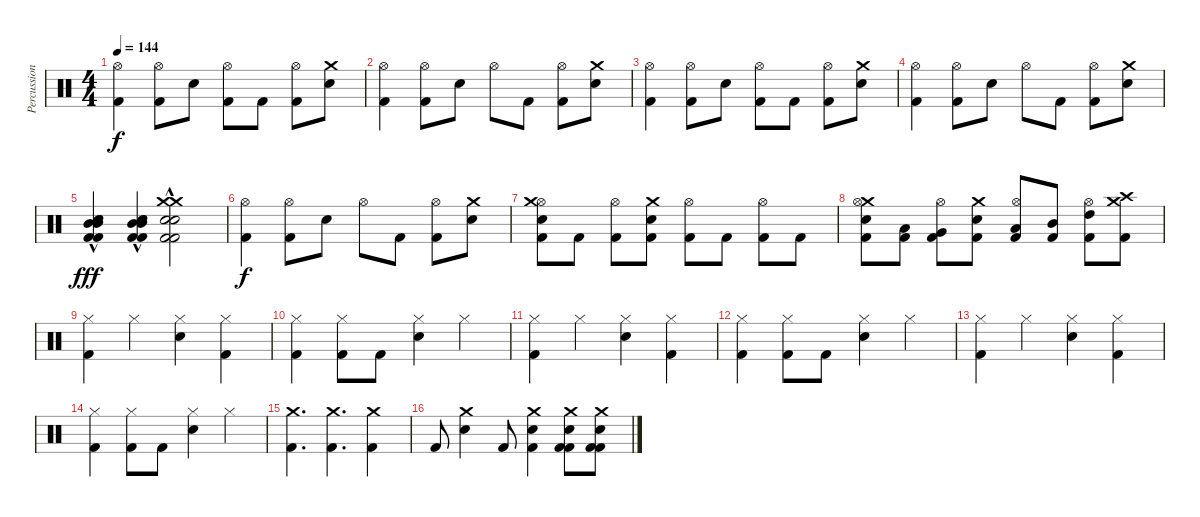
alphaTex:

\track ("Percussion" "Percussion") {instrument percussion}
\staff {score}
\articulation defaults
\ts (4 4)
\tempo 144
\clef neutral
\ks c
("Kick (hit) 2" "Hi-Hat (open)").4{dy f} ("Kick (hit) 2" "Hi-Hat (open)").8 "Electric Snare (hit)".8 ("Kick (hit) 2" "Hi-Hat (open)").8 "Kick (hit) 2".8 ("Kick (hit) 2" "Hi-Hat (open)").8 ("Electric Snare (hit)" "Crash medium (hit)").8 |
("Kick (hit) 2" "Hi-Hat (open)").4 ("Kick (hit) 2" "Hi-Hat (open)").8 "Electric Snare (hit)".8 "Hi-Hat (open)".8 "Kick (hit) 2".8 ("Kick (hit) 2" "Hi-Hat (open)").8 ("Electric Snare (hit)" "Crash medium (hit)").8 |
("Kick (hit) 2" "Hi-Hat (open)").4 ("Kick (hit) 2" "Hi-Hat (open)").8 "Electric Snare (hit)".8 ("Kick (hit) 2" "Hi-Hat (open)").8 "Kick (hit) 2".8 ("Kick (hit) 2" "Hi-Hat (open)").8 ("Electric Snare (hit)" "Crash medium (hit)").8 |
("Kick (hit) 2" "Hi-Hat (open)").4 ("Kick (hit) 2" "Hi-Hat (open)").8 "Electric Snare (hit)".8 "Hi-Hat (open)".8 "Kick (hit) 2".8 ("Kick (hit) 2" "Hi-Hat (open)").8 ("Electric Snare (hit)" "Crash medium (hit)").8 |
("Kick (hit) 2" "Mid Tom (hit)" "Electric Snare (hit)" "Mid Tom (hit)"{hac} "Kick (hit) 2" "Electric Snare (hit)").4{dy fff} ("Kick (hit) 2" "Mid Tom (hit)" "Electric Snare (hit)" "Mid Tom (hit)"{hac} "Kick (hit) 2" "Electric Snare (hit)").4 ("Kick (hit) 2" "Crash medium (hit)" "Electric Snare (hit)" "Crash medium (hit)"{hac} "Kick (hit) 2" "Electric Snare (hit)").2 |
("Kick (hit) 2" "Hi-Hat (open)").4{dy f} ("Kick (hit) 2" "Hi-Hat (open)").8 "Electric Snare (hit)".8 "Hi-Hat (open)".8 "Kick (hit) 2".8 ("Kick (hit) 2" "Hi-Hat (open)").8 ("Electric Snare (hit)" "Crash medium (hit)").8 |
("Kick (hit) 2" "Electric Snare (hit)" "Hi-Hat (open)" "Crash medium (hit)").8 "Kick (hit) 2".8 ("Kick (hit) 2" "Hi-Hat (open)").8 ("Kick (hit) 2" "Electric Snare (hit)" "Crash medium (hit)").8 ("Kick (hit) 2" "Hi-Hat (open)").8 "Kick (hit) 2".8 ("Kick (hit) 2" "Hi-Hat (open)").8 "Kick (hit) 2".8 |
("Kick (hit) 2" "Electric Snare (hit)" "Crash medium (hit)" "Hi-Hat (open)").8 ("Kick (hit) 2" "Low Floor Tom (hit)").8 ("Kick (hit) 2" "Very Low Tom (hit)" "Hi-Hat (open)").8 ("Kick (hit) 2" "Electric Snare (hit)" "Crash medium (hit)").8 ("Kick (hit) 2" "Low Tom (hit)" "Hi-Hat (open)").8 ("Kick (hit) 2" "Mid Tom (hit)").8 ("Kick (hit) 2" "High Tom (hit)" "Hi-Hat (open)").8 ("Kick (hit) 2" "Crash medium (hit)" "Crash high (hit)").8 |
("Hi-Hat (closed)" "Kick (hit) 2").4 "Hi-Hat (closed)".4 ("Hi-Hat (closed)" "Electric Snare (hit)").4 ("Hi-Hat (closed)" "Kick (hit) 2").4 |
("Hi-Hat (closed)" "Kick (hit) 2").4 ("Hi-Hat (closed)" "Kick (hit) 2").8 "Kick (hit) 2".8 ("Hi-Hat (closed)" "Electric Snare (hit)").4 "Hi-Hat (closed)".4 |
("Hi-Hat (closed)" "Kick (hit) 2").4 "Hi-Hat (closed)".4 ("Hi-Hat (closed)" "Electric Snare (hit)").4 ("Hi-Hat (closed)" "Kick (hit) 2").4 |
("Hi-Hat (closed)" "Kick (hit) 2").4 ("Hi-Hat (closed)" "Kick (hit) 2").8 "Kick (hit) 2".8 ("Hi-Hat (closed)" "Electric Snare (hit)").4 "Hi-Hat (closed)".4 |
("Hi-Hat (closed)" "Kick (hit) 2").4 "Hi-Hat (closed)".4 ("Hi-Hat (closed)" "Electric Snare (hit)").4 ("Hi-Hat (closed)" "Kick (hit) 2").4 |
("Hi-Hat (closed)" "Kick (hit) 2").4 ("Hi-Hat (closed)" "Kick (hit) 2").8 "Kick (hit) 2".8 ("Hi-Hat (closed)" "Electric Snare (hit)").4 "Hi-Hat (closed)".4 |
("Crash medium (hit)" "Kick (hit) 2").4{d} ("Crash medium (hit)" "Kick (hit) 2").4{d} ("Crash medium (hit)" "Kick (hit) 2").4 |
"Kick (hit) 2".8 ("Electric Snare (hit)" "Crash medium (hit)").4 "Kick (hit) 2".8 ("Electric Snare (hit)" "Kick (hit) 2" "Crash medium (hit)").4 ("Electric Snare (hit)" "Kick (hit) 2" "Crash medium (hit)" "Kick (hit) 2").8 ("Electric Snare (hit)" "Kick (hit) 2" "Crash medium (hit)" "Kick (hit) 2").8
